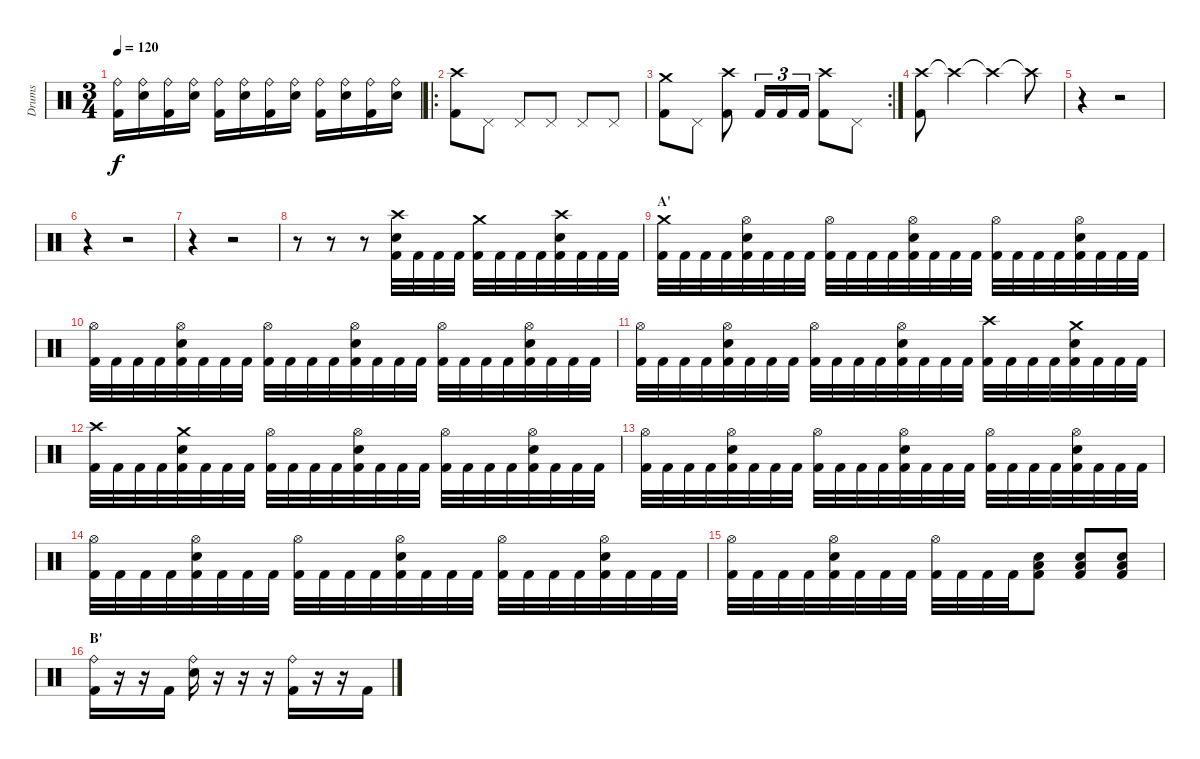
\track ("Drums" "Drums") {instrument percussion}
\staff {score}
\articulation defaults
\ts (3 4)
\tempo 120
\clef neutral
\ks c
("Ride (bell)" "Kick (hit) 2").16{dy f} ("Ride (bell)" "Electric Snare (hit)").16 ("Ride (bell)" "Kick (hit) 2").16 ("Ride (bell)" "Electric Snare (hit)").16 ("Ride (bell)" "Kick (hit) 2").16 ("Ride (bell)" "Electric Snare (hit)").16 ("Ride (bell)" "Kick (hit) 2").16 ("Ride (bell)" "Electric Snare (hit)").16 ("Ride (bell)" "Kick (hit) 2").16 ("Ride (bell)" "Electric Snare (hit)").16 ("Ride (bell)" "Kick (hit) 2").16 ("Ride (bell)" "Electric Snare (hit)").16 |
\ro
("Crash high (hit)" "Kick (hit) 2").8 "Pedal Hi-Hat (hit)".8 "Pedal Hi-Hat (hit)".8 "Pedal Hi-Hat (hit)".8 "Pedal Hi-Hat (hit)".8 "Pedal Hi-Hat (hit)".8 |
\rc 2
("Crash medium (hit)" "Kick (hit) 2").8 "Pedal Hi-Hat (hit)".8 ("Crash high (hit)" "Kick (hit) 2").8 "Kick (hit) 2".16{tu (3 2)} "Kick (hit) 2".16{tu (3 2)} "Kick (hit) 2".16{tu (3 2)} ("Crash high (hit)" "Kick (hit) 2").8 "Pedal Hi-Hat (hit)".8 |
("Crash high (hit)" "Kick (hit) 2").8 "Crash high (hit)"{t}.4 "Crash high (hit)"{t}.4 "Crash high (hit)"{t}.8 |
r.4 r.2 |
r.4 r.2 |
r.4 r.2 |
r.8 r.8 r.8 ("Crash high (hit)" "Electric Snare (hit)" "Kick (hit) 2").32 "Kick (hit) 2".32 "Kick (hit) 2".32 "Kick (hit) 2".32 ("Crash medium (hit)" "Kick (hit) 2").32 "Kick (hit) 2".32 "Kick (hit) 2".32 "Kick (hit) 2".32 ("Crash high (hit)" "Electric Snare (hit)" "Kick (hit) 2").32 "Kick (hit) 2".32 "Kick (hit) 2".32 "Kick (hit) 2".32 |
\section ("" "A'")
("Crash medium (hit)" "Kick (hit) 2").32 "Kick (hit) 2".32 "Kick (hit) 2".32 "Kick (hit) 2".32 ("Hi-Hat (open)" "Electric Snare (hit)" "Kick (hit) 2").32 "Kick (hit) 2".32 "Kick (hit) 2".32 "Kick (hit) 2".32 ("Hi-Hat (open)" "Kick (hit) 2").32 "Kick (hit) 2".32 "Kick (hit) 2".32 "Kick (hit) 2".32 ("Hi-Hat (open)" "Electric Snare (hit)" "Kick (hit) 2").32 "Kick (hit) 2".32 "Kick (hit) 2".32 "Kick (hit) 2".32 ("Hi-Hat (open)" "Kick (hit) 2").32 "Kick (hit) 2".32 "Kick (hit) 2".32 "Kick (hit) 2".32 ("Hi-Hat (open)" "Electric Snare (hit)" "Kick (hit) 2").32 "Kick (hit) 2".32 "Kick (hit) 2".32 "Kick (hit) 2".32 |
("Hi-Hat (open)" "Kick (hit) 2").32 "Kick (hit) 2".32 "Kick (hit) 2".32 "Kick (hit) 2".32 ("Hi-Hat (open)" "Electric Snare (hit)" "Kick (hit) 2").32 "Kick (hit) 2".32 "Kick (hit) 2".32 "Kick (hit) 2".32 ("Hi-Hat (open)" "Kick (hit) 2").32 "Kick (hit) 2".32 "Kick (hit) 2".32 "Kick (hit) 2".32 ("Hi-Hat (open)" "Electric Snare (hit)" "Kick (hit) 2").32 "Kick (hit) 2".32 "Kick (hit) 2".32 "Kick (hit) 2".32 ("Hi-Hat (open)" "Kick (hit) 2").32 "Kick (hit) 2".32 "Kick (hit) 2".32 "Kick (hit) 2".32 ("Hi-Hat (open)" "Electric Snare (hit)" "Kick (hit) 2").32 "Kick (hit) 2".32 "Kick (hit) 2".32 "Kick (hit) 2".32 |
("Hi-Hat (open)" "Kick (hit) 2").32 "Kick (hit) 2".32 "Kick (hit) 2".32 "Kick (hit) 2".32 ("Hi-Hat (open)" "Electric Snare (hit)" "Kick (hit) 2").32 "Kick (hit) 2".32 "Kick (hit) 2".32 "Kick (hit) 2".32 ("Hi-Hat (open)" "Kick (hit) 2").32 "Kick (hit) 2".32 "Kick (hit) 2".32 "Kick (hit) 2".32 ("Hi-Hat (open)" "Electric Snare (hit)" "Kick (hit) 2").32 "Kick (hit) 2".32 "Kick (hit) 2".32 "Kick (hit) 2".32 ("Crash high (hit)" "Kick (hit) 2").32 "Kick (hit) 2".32 "Kick (hit) 2".32 "Kick (hit) 2".32 ("Crash medium (hit)" "Electric Snare (hit)" "Kick (hit) 2").32 "Kick (hit) 2".32 "Kick (hit) 2".32 "Kick (hit) 2".32 |
("Crash high (hit)" "Kick (hit) 2").32 "Kick (hit) 2".32 "Kick (hit) 2".32 "Kick (hit) 2".32 ("Crash medium (hit)" "Electric Snare (hit)" "Kick (hit) 2").32 "Kick (hit) 2".32 "Kick (hit) 2".32 "Kick (hit) 2".32 ("Hi-Hat (open)" "Kick (hit) 2").32 "Kick (hit) 2".32 "Kick (hit) 2".32 "Kick (hit) 2".32 ("Hi-Hat (open)" "Electric Snare (hit)" "Kick (hit) 2").32 "Kick (hit) 2".32 "Kick (hit) 2".32 "Kick (hit) 2".32 ("Hi-Hat (open)" "Kick (hit) 2").32 "Kick (hit) 2".32 "Kick (hit) 2".32 "Kick (hit) 2".32 ("Hi-Hat (open)" "Electric Snare (hit)" "Kick (hit) 2").32 "Kick (hit) 2".32 "Kick (hit) 2".32 "Kick (hit) 2".32 |
("Hi-Hat (open)" "Kick (hit) 2").32 "Kick (hit) 2".32 "Kick (hit) 2".32 "Kick (hit) 2".32 ("Hi-Hat (open)" "Electric Snare (hit)" "Kick (hit) 2").32 "Kick (hit) 2".32 "Kick (hit) 2".32 "Kick (hit) 2".32 ("Hi-Hat (open)" "Kick (hit) 2").32 "Kick (hit) 2".32 "Kick (hit) 2".32 "Kick (hit) 2".32 ("Hi-Hat (open)" "Electric Snare (hit)" "Kick (hit) 2").32 "Kick (hit) 2".32 "Kick (hit) 2".32 "Kick (hit) 2".32 ("Hi-Hat (open)" "Kick (hit) 2").32 "Kick (hit) 2".32 "Kick (hit) 2".32 "Kick (hit) 2".32 ("Hi-Hat (open)" "Electric Snare (hit)" "Kick (hit) 2").32 "Kick (hit) 2".32 "Kick (hit) 2".32 "Kick (hit) 2".32 |
("Hi-Hat (open)" "Kick (hit) 2").32 "Kick (hit) 2".32 "Kick (hit) 2".32 "Kick (hit) 2".32 ("Hi-Hat (open)" "Electric Snare (hit)" "Kick (hit) 2").32 "Kick (hit) 2".32 "Kick (hit) 2".32 "Kick (hit) 2".32 ("Hi-Hat (open)" "Kick (hit) 2").32 "Kick (hit) 2".32 "Kick (hit) 2".32 "Kick (hit) 2".32 ("Hi-Hat (open)" "Electric Snare (hit)" "Kick (hit) 2").32 "Kick (hit) 2".32 "Kick (hit) 2".32 "Kick (hit) 2".32 ("Hi-Hat (open)" "Kick (hit) 2").32 "Kick (hit) 2".32 "Kick (hit) 2".32 "Kick (hit) 2".32 ("Hi-Hat (open)" "Electric Snare (hit)" "Kick (hit) 2").32 "Kick (hit) 2".32 "Kick (hit) 2".32 "Kick (hit) 2".32 |
("Hi-Hat (open)" "Kick (hit) 2").32 "Kick (hit) 2".32 "Kick (hit) 2".32 "Kick (hit) 2".32 ("Hi-Hat (open)" "Electric Snare (hit)" "Kick (hit) 2").32 "Kick (hit) 2".32 "Kick (hit) 2".32 "Kick (hit) 2".32 ("Hi-Hat (open)" "Kick (hit) 2").32 "Kick (hit) 2".32 "Kick (hit) 2".32 "Kick (hit) 2".32 ("Electric Snare (hit)" "Low Floor Tom (hit)" "Kick (hit) 2").8 ("Electric Snare (hit)" "Low Floor Tom (hit)" "Kick (hit) 2").8 ("Electric Snare (hit)" "Low Floor Tom (hit)" "Kick (hit) 2").8 |
\section ("" "B'")
("Kick (hit) 2" "Ride (bell)").16 r.16 r.16 "Kick (hit) 2".16 ("Electric Snare (hit)" "Ride (bell)").16 r.16 r.16 r.16 ("Kick (hit) 2" "Ride (bell)").16 r.16 r.16 "Kick (hit) 2".16
